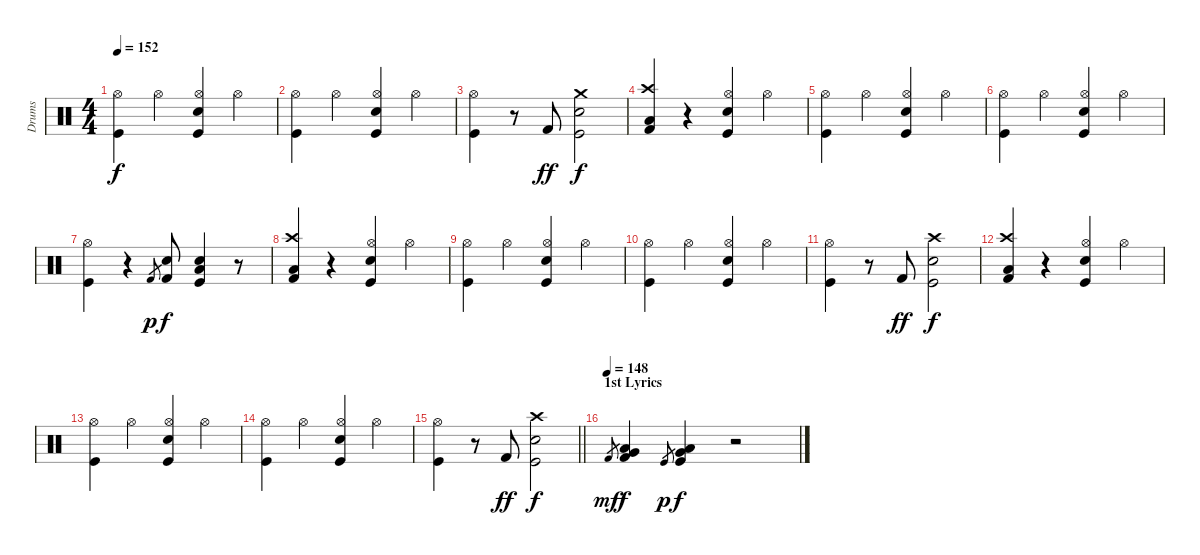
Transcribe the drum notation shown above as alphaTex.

\track ("Drums" "Drums") {instrument percussion}
\staff {score}
\articulation defaults
\ts (4 4)
\tempo 152
\clef neutral
\ks c
("Kick (hit)" "Hi-Hat (open)").4{dy f} "Hi-Hat (open)".4 ("Kick (hit)" "Snare (hit) 2" "Hi-Hat (open)").4 "Hi-Hat (open)".4 |
("Kick (hit)" "Hi-Hat (open)").4 "Hi-Hat (open)".4 ("Kick (hit)" "Snare (hit) 2" "Hi-Hat (open)").4 "Hi-Hat (open)".4 |
("Kick (hit)" "Hi-Hat (open)").4 r.8 "Kick (hit) 2".8{dy ff} ("Kick (hit)" "Snare (hit) 2" "Crash medium (hit)").2{dy f} |
("Kick (hit) 2" "Crash high (hit)" "Low Floor Tom (hit)").4 r.4 ("Kick (hit)" "Snare (hit) 2" "Hi-Hat (open)").4 "Hi-Hat (open)".4 |
("Kick (hit)" "Hi-Hat (open)").4 "Hi-Hat (open)".4 ("Kick (hit)" "Snare (hit) 2" "Hi-Hat (open)").4 "Hi-Hat (open)".4 |
("Kick (hit)" "Hi-Hat (open)").4 "Hi-Hat (open)".4 ("Kick (hit)" "Snare (hit) 2" "Hi-Hat (open)").4 "Hi-Hat (open)".4 |
("Kick (hit)" "Hi-Hat (open)").4 r.4 "Kick (hit) 2".8{gr dy p} ("Kick (hit) 2" "Electric Snare (hit)").8{dy f} ("Kick (hit)" "Electric Snare (hit)" "Low Floor Tom (hit)").4 r.8 |
("Kick (hit) 2" "Crash high (hit)" "Low Floor Tom (hit)").4 r.4 ("Kick (hit)" "Snare (hit) 2" "Hi-Hat (open)").4 "Hi-Hat (open)".4 |
("Kick (hit)" "Hi-Hat (open)").4 "Hi-Hat (open)".4 ("Kick (hit)" "Snare (hit) 2" "Hi-Hat (open)").4 "Hi-Hat (open)".4 |
("Kick (hit)" "Hi-Hat (open)").4 "Hi-Hat (open)".4 ("Kick (hit)" "Snare (hit) 2" "Hi-Hat (open)").4 "Hi-Hat (open)".4 |
("Kick (hit)" "Hi-Hat (open)").4 r.8 "Kick (hit) 2".8{dy ff} ("Kick (hit)" "Snare (hit) 2" "Crash high (hit)").2{dy f} |
("Kick (hit) 2" "Crash high (hit)" "Low Floor Tom (hit)").4 r.4 ("Kick (hit)" "Snare (hit) 2" "Hi-Hat (open)").4 "Hi-Hat (open)".4 |
("Kick (hit)" "Hi-Hat (open)").4 "Hi-Hat (open)".4 ("Kick (hit)" "Snare (hit) 2" "Hi-Hat (open)").4 "Hi-Hat (open)".4 |
("Kick (hit)" "Hi-Hat (open)").4 "Hi-Hat (open)".4 ("Kick (hit)" "Snare (hit) 2" "Hi-Hat (open)").4 "Hi-Hat (open)".4 |
\barLineRight lightlight
("Kick (hit)" "Hi-Hat (open)").4 r.8 "Kick (hit) 2".8{dy ff} ("Kick (hit)" "Snare (hit) 2" "Crash high (hit)").2{dy f} |
\section ("" "1st Lyrics")
\tempo (148)
"Kick (hit) 2".8{gr dy mf} ("Kick (hit) 2" "Very Low Tom (hit)" "Low Floor Tom (hit)").4{dy f} "Kick (hit)".8{gr dy p} ("Kick (hit)" "Very Low Tom (hit)" "Low Floor Tom (hit)").4{dy f} r.2
